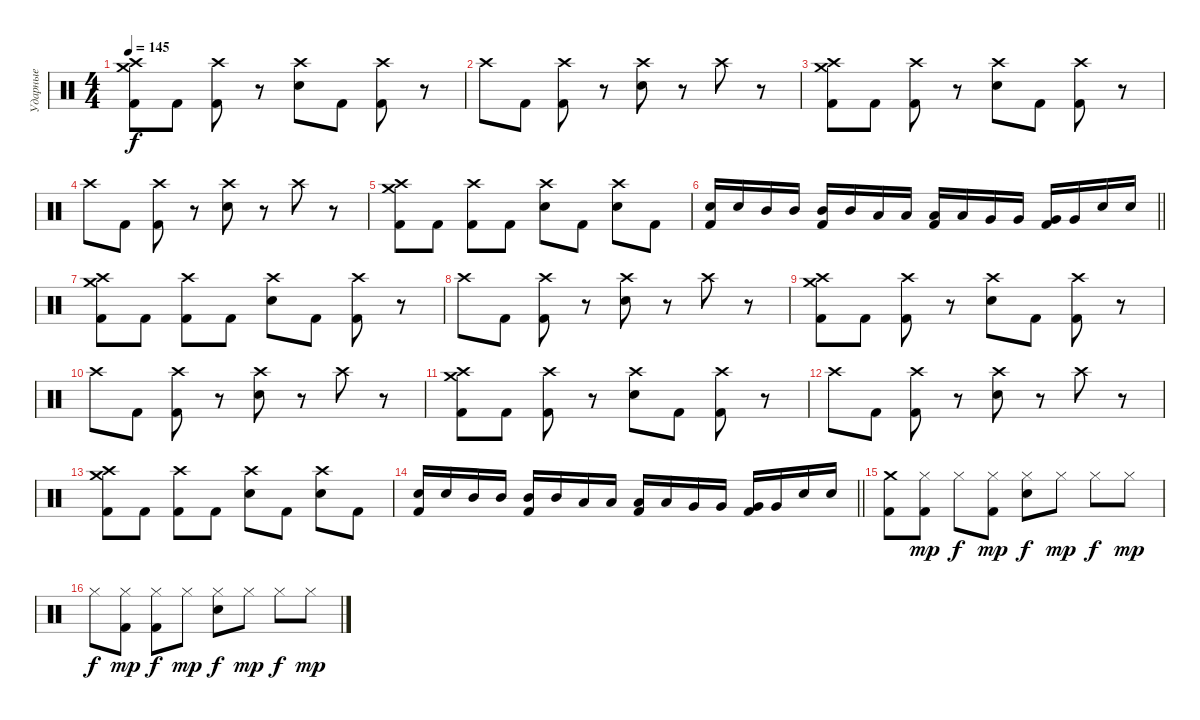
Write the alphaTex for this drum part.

\track ("Ударные" "Ударные") {instrument percussion}
\staff {score}
\articulation defaults
\ts (4 4)
\tempo 145
\clef neutral
\ks c
("Crash medium (hit)" "Crash high (hit)" "Kick (hit) 2").8{dy f} "Kick (hit) 2".8 ("Crash high (hit)" "Kick (hit) 2").8 r.8 ("Crash high (hit)" "Electric Snare (hit)").8 "Kick (hit) 2".8 ("Crash high (hit)" "Kick (hit) 2").8 r.8 |
"Crash high (hit)".8 "Kick (hit) 2".8 ("Crash high (hit)" "Kick (hit) 2").8 r.8 ("Crash high (hit)" "Electric Snare (hit)").8 r.8 "Crash high (hit)".8 r.8 |
("Crash medium (hit)" "Crash high (hit)" "Kick (hit) 2").8 "Kick (hit) 2".8 ("Crash high (hit)" "Kick (hit) 2").8 r.8 ("Crash high (hit)" "Electric Snare (hit)").8 "Kick (hit) 2".8 ("Crash high (hit)" "Kick (hit) 2").8 r.8 |
"Crash high (hit)".8 "Kick (hit) 2".8 ("Crash high (hit)" "Kick (hit) 2").8 r.8 ("Crash high (hit)" "Electric Snare (hit)").8 r.8 "Crash high (hit)".8 r.8 |
("Crash medium (hit)" "Crash high (hit)" "Kick (hit) 2").8 "Kick (hit) 2".8 ("Crash high (hit)" "Kick (hit) 2").8 "Kick (hit) 2".8 ("Crash high (hit)" "Electric Snare (hit)").8 "Kick (hit) 2".8 ("Crash high (hit)" "Electric Snare (hit)").8 "Kick (hit) 2".8 |
\barLineRight lightlight
("Electric Snare (hit)" "Kick (hit) 2").16 "Electric Snare (hit)".16 "Mid Tom (hit)".16 "Mid Tom (hit)".16 ("Mid Tom (hit)" "Kick (hit) 2").16 "Mid Tom (hit)".16 "Low Tom (hit)".16 "Low Tom (hit)".16 ("Low Tom (hit)" "Kick (hit) 2").16 "Low Tom (hit)".16 "Very Low Tom (hit)".16 "Very Low Tom (hit)".16 ("Very Low Tom (hit)" "Kick (hit) 2").16 "Very Low Tom (hit)".16 "Electric Snare (hit)".16 "Electric Snare (hit)".16 |
("Crash medium (hit)" "Crash high (hit)" "Kick (hit) 2").8 "Kick (hit) 2".8 ("Crash high (hit)" "Kick (hit) 2").8 "Kick (hit) 2".8 ("Crash high (hit)" "Electric Snare (hit)").8 "Kick (hit) 2".8 ("Crash high (hit)" "Kick (hit) 2").8 r.8 |
"Crash high (hit)".8 "Kick (hit) 2".8 ("Crash high (hit)" "Kick (hit) 2").8 r.8 ("Crash high (hit)" "Electric Snare (hit)").8 r.8 "Crash high (hit)".8 r.8 |
("Crash medium (hit)" "Crash high (hit)" "Kick (hit) 2").8 "Kick (hit) 2".8 ("Crash high (hit)" "Kick (hit) 2").8 r.8 ("Crash high (hit)" "Electric Snare (hit)").8 "Kick (hit) 2".8 ("Crash high (hit)" "Kick (hit) 2").8 r.8 |
"Crash high (hit)".8 "Kick (hit) 2".8 ("Crash high (hit)" "Kick (hit) 2").8 r.8 ("Crash high (hit)" "Electric Snare (hit)").8 r.8 "Crash high (hit)".8 r.8 |
("Crash medium (hit)" "Crash high (hit)" "Kick (hit) 2").8 "Kick (hit) 2".8 ("Crash high (hit)" "Kick (hit) 2").8 r.8 ("Crash high (hit)" "Electric Snare (hit)").8 "Kick (hit) 2".8 ("Crash high (hit)" "Kick (hit) 2").8 r.8 |
"Crash high (hit)".8 "Kick (hit) 2".8 ("Crash high (hit)" "Kick (hit) 2").8 r.8 ("Crash high (hit)" "Electric Snare (hit)").8 r.8 "Crash high (hit)".8 r.8 |
("Crash medium (hit)" "Crash high (hit)" "Kick (hit) 2").8 "Kick (hit) 2".8 ("Crash high (hit)" "Kick (hit) 2").8 "Kick (hit) 2".8 ("Crash high (hit)" "Electric Snare (hit)").8 "Kick (hit) 2".8 ("Crash high (hit)" "Electric Snare (hit)").8 "Kick (hit) 2".8 |
\barLineRight lightlight
("Electric Snare (hit)" "Kick (hit) 2").16 "Electric Snare (hit)".16 "Mid Tom (hit)".16 "Mid Tom (hit)".16 ("Mid Tom (hit)" "Kick (hit) 2").16 "Mid Tom (hit)".16 "Low Tom (hit)".16 "Low Tom (hit)".16 ("Low Tom (hit)" "Kick (hit) 2").16 "Low Tom (hit)".16 "Very Low Tom (hit)".16 "Very Low Tom (hit)".16 ("Very Low Tom (hit)" "Kick (hit) 2").16 "Very Low Tom (hit)".16 "Electric Snare (hit)".16 "Electric Snare (hit)".16 |
\section ("" "")
("Crash medium (hit)" "Kick (hit) 2").8 ("Hi-Hat (closed)" "Kick (hit) 2").8{dy mp} "Hi-Hat (closed)".8{dy f} ("Hi-Hat (closed)" "Kick (hit) 2").8{dy mp} ("Hi-Hat (closed)" "Electric Snare (hit)").8{dy f} "Hi-Hat (closed)".8{dy mp} "Hi-Hat (closed)".8{dy f} "Hi-Hat (closed)".8{dy mp} |
"Hi-Hat (closed)".8{dy f} ("Hi-Hat (closed)" "Kick (hit) 2").8{dy mp} ("Hi-Hat (closed)" "Kick (hit) 2").8{dy f} "Hi-Hat (closed)".8{dy mp} ("Hi-Hat (closed)" "Electric Snare (hit)").8{dy f} "Hi-Hat (closed)".8{dy mp} "Hi-Hat (closed)".8{dy f} "Hi-Hat (closed)".8{dy mp}
